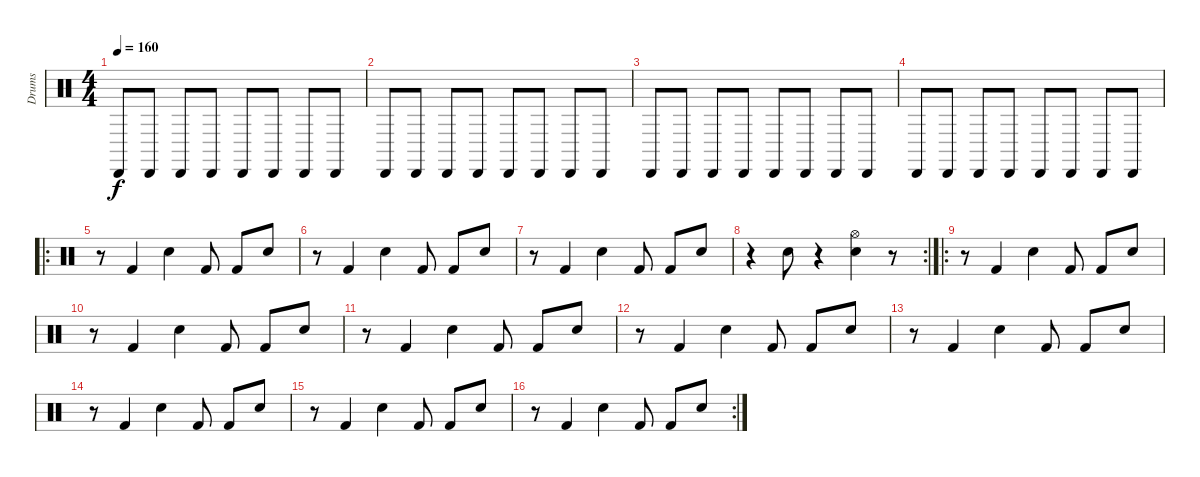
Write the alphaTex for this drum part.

\track ("Drums" "Drums") {instrument percussion}
\staff {score}
\articulation defaults
\ts (4 4)
\tempo 160
\clef neutral
\ks c "Cabasa (hit)".8{dy f} "Cabasa (hit)".8 "Cabasa (hit)".8 "Cabasa (hit)".8 "Cabasa (hit)".8 "Cabasa (hit)".8 "Cabasa (hit)".8 "Cabasa (hit)".8
|
"Cabasa (hit)".8 "Cabasa (hit)".8 "Cabasa (hit)".8 "Cabasa (hit)".8 "Cabasa (hit)".8 "Cabasa (hit)".8 "Cabasa (hit)".8 "Cabasa (hit)".8 |
"Cabasa (hit)".8 "Cabasa (hit)".8 "Cabasa (hit)".8 "Cabasa (hit)".8 "Cabasa (hit)".8 "Cabasa (hit)".8 "Cabasa (hit)".8 "Cabasa (hit)".8 |
"Cabasa (hit)".8 "Cabasa (hit)".8 "Cabasa (hit)".8 "Cabasa (hit)".8 "Cabasa (hit)".8 "Cabasa (hit)".8 "Cabasa (hit)".8 "Cabasa (hit)".8 |
\ro
r.8 "Kick (hit) 2".4 "Snare (hit) 2".4 "Kick (hit) 2".8 "Kick (hit) 2".8 "Snare (hit) 2".8 |
r.8 "Kick (hit) 2".4 "Snare (hit) 2".4 "Kick (hit) 2".8 "Kick (hit) 2".8 "Snare (hit) 2".8 |
r.8 "Kick (hit) 2".4 "Snare (hit) 2".4 "Kick (hit) 2".8 "Kick (hit) 2".8 "Snare (hit) 2".8 |
\rc 2
r.4 "Snare (hit) 2".8 r.4 ("Snare (hit) 2" "Hi-Hat (open)").4 r.8 |
\ro
r.8 "Kick (hit) 2".4 "Snare (hit) 2".4 "Kick (hit) 2".8 "Kick (hit) 2".8 "Snare (hit) 2".8 |
r.8 "Kick (hit) 2".4 "Snare (hit) 2".4 "Kick (hit) 2".8 "Kick (hit) 2".8 "Snare (hit) 2".8 |
r.8 "Kick (hit) 2".4 "Snare (hit) 2".4 "Kick (hit) 2".8 "Kick (hit) 2".8 "Snare (hit) 2".8 |
r.8 "Kick (hit) 2".4 "Snare (hit) 2".4 "Kick (hit) 2".8 "Kick (hit) 2".8 "Snare (hit) 2".8 |
r.8 "Kick (hit) 2".4 "Snare (hit) 2".4 "Kick (hit) 2".8 "Kick (hit) 2".8 "Snare (hit) 2".8 |
r.8 "Kick (hit) 2".4 "Snare (hit) 2".4 "Kick (hit) 2".8 "Kick (hit) 2".8 "Snare (hit) 2".8 |
r.8 "Kick (hit) 2".4 "Snare (hit) 2".4 "Kick (hit) 2".8 "Kick (hit) 2".8 "Snare (hit) 2".8 |
\rc 2
r.8 "Kick (hit) 2".4 "Snare (hit) 2".4 "Kick (hit) 2".8 "Kick (hit) 2".8 "Snare (hit) 2".8
